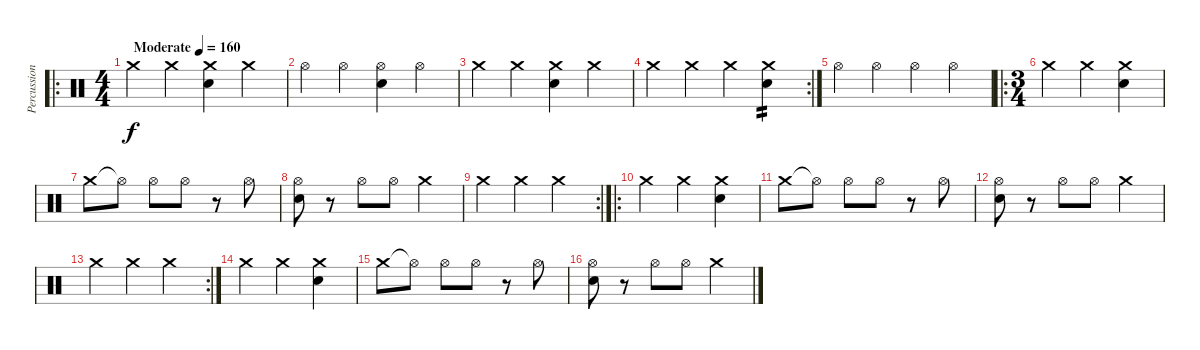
\track ("Percussion" "Percussion") {instrument percussion}
\staff {score}
\articulation defaults
\ro
\ts (4 4)
\tempo (160 "Moderate")
\clef neutral
\ks c "Crash medium (hit)".4{dy f} "Crash medium (hit)".4
("Crash medium (hit)" "Snare (hit) 2").4 "Crash medium (hit)".4 |
"Hi-Hat (open)".4 "Hi-Hat (open)".4 ("Hi-Hat (open)" "Snare (hit) 2").4 "Hi-Hat (open)".4 |
"Crash medium (hit)".4 "Crash medium (hit)".4 ("Crash medium (hit)" "Snare (hit) 2").4 "Crash medium (hit)".4 |
\rc 2 "Crash medium (hit)".4 "Crash medium (hit)".4 "Crash medium (hit)".4
("Crash medium (hit)" "Snare (hit) 2").4{tp 2} |
"Hi-Hat (open)".4 "Hi-Hat (open)".4 "Hi-Hat (open)".4 "Hi-Hat (open)".4 |
\ro
\ts (3 4)
"Crash medium (hit)".4 "Crash medium (hit)".4 ("Crash medium (hit)" "Snare (hit) 2").4 |
"Crash medium (hit)".8 "Hi-Hat (open)"{t}.8 "Hi-Hat (open)".8 "Hi-Hat (open)".8 r.8 "Hi-Hat (open)".8 |
("Hi-Hat (open)" "Snare (hit) 2").8 r.8 "Hi-Hat (open)".8 "Hi-Hat (open)".8 "Crash medium (hit)".4 |
\rc 2 "Crash medium (hit)".4 "Crash medium (hit)".4 "Crash medium (hit)".4
|
\ro "Crash medium (hit)".4 "Crash medium (hit)".4
("Crash medium (hit)" "Snare (hit) 2").4 |
"Crash medium (hit)".8 "Hi-Hat (open)"{t}.8 "Hi-Hat (open)".8 "Hi-Hat (open)".8 r.8 "Hi-Hat (open)".8 |
("Hi-Hat (open)" "Snare (hit) 2").8 r.8 "Hi-Hat (open)".8 "Hi-Hat (open)".8 "Crash medium (hit)".4 |
\rc 2 "Crash medium (hit)".4 "Crash medium (hit)".4 "Crash medium (hit)".4
|
"Crash medium (hit)".4 "Crash medium (hit)".4 ("Crash medium (hit)" "Snare (hit) 2").4 |
"Crash medium (hit)".8 "Hi-Hat (open)"{t}.8 "Hi-Hat (open)".8 "Hi-Hat (open)".8 r.8 "Hi-Hat (open)".8 |
("Hi-Hat (open)" "Snare (hit) 2").8 r.8 "Hi-Hat (open)".8 "Hi-Hat (open)".8 "Crash medium (hit)".4
